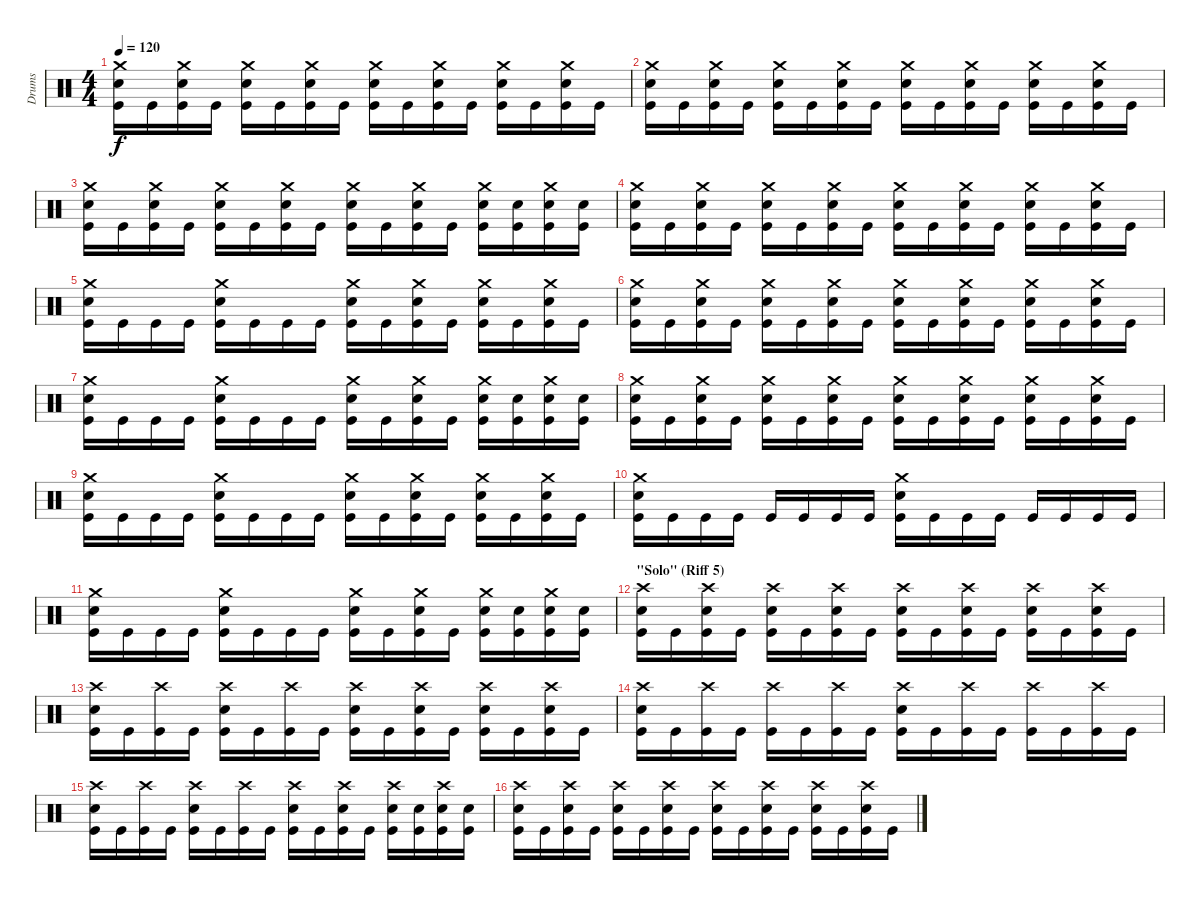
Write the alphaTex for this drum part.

\track ("Drums" "Drums") {instrument percussion}
\staff {score}
\articulation defaults
\ts (4 4)
\tempo 120
\clef neutral
\ks c
("Crash medium (hit)" "Snare (hit) 2" "Kick (hit)").16{dy f} "Kick (hit)".16 ("Crash medium (hit)" "Snare (hit) 2" "Kick (hit)").16 "Kick (hit)".16 ("Crash medium (hit)" "Snare (hit) 2" "Kick (hit)").16 "Kick (hit)".16 ("Crash medium (hit)" "Snare (hit) 2" "Kick (hit)").16 "Kick (hit)".16 ("Crash medium (hit)" "Snare (hit) 2" "Kick (hit)").16 "Kick (hit)".16 ("Crash medium (hit)" "Snare (hit) 2" "Kick (hit)").16 "Kick (hit)".16 ("Crash medium (hit)" "Snare (hit) 2" "Kick (hit)").16 "Kick (hit)".16 ("Crash medium (hit)" "Snare (hit) 2" "Kick (hit)").16 "Kick (hit)".16 |
("Crash medium (hit)" "Snare (hit) 2" "Kick (hit)").16 "Kick (hit)".16 ("Crash medium (hit)" "Snare (hit) 2" "Kick (hit)").16 "Kick (hit)".16 ("Crash medium (hit)" "Snare (hit) 2" "Kick (hit)").16 "Kick (hit)".16 ("Crash medium (hit)" "Snare (hit) 2" "Kick (hit)").16 "Kick (hit)".16 ("Crash medium (hit)" "Snare (hit) 2" "Kick (hit)").16 "Kick (hit)".16 ("Crash medium (hit)" "Snare (hit) 2" "Kick (hit)").16 "Kick (hit)".16 ("Crash medium (hit)" "Snare (hit) 2" "Kick (hit)").16 "Kick (hit)".16 ("Crash medium (hit)" "Snare (hit) 2" "Kick (hit)").16 "Kick (hit)".16 |
("Crash medium (hit)" "Snare (hit) 2" "Kick (hit)").16 "Kick (hit)".16 ("Crash medium (hit)" "Snare (hit) 2" "Kick (hit)").16 "Kick (hit)".16 ("Crash medium (hit)" "Snare (hit) 2" "Kick (hit)").16 "Kick (hit)".16 ("Crash medium (hit)" "Snare (hit) 2" "Kick (hit)").16 "Kick (hit)".16 ("Crash medium (hit)" "Snare (hit) 2" "Kick (hit)").16 "Kick (hit)".16 ("Crash medium (hit)" "Snare (hit) 2" "Kick (hit)").16 "Kick (hit)".16 ("Crash medium (hit)" "Snare (hit) 2" "Kick (hit)").16 ("Snare (hit) 2" "Kick (hit)").16 ("Crash medium (hit)" "Snare (hit) 2" "Kick (hit)").16 ("Snare (hit) 2" "Kick (hit)").16 |
("Crash medium (hit)" "Snare (hit) 2" "Kick (hit)").16 "Kick (hit)".16 ("Crash medium (hit)" "Snare (hit) 2" "Kick (hit)").16 "Kick (hit)".16 ("Crash medium (hit)" "Snare (hit) 2" "Kick (hit)").16 "Kick (hit)".16 ("Crash medium (hit)" "Snare (hit) 2" "Kick (hit)").16 "Kick (hit)".16 ("Crash medium (hit)" "Snare (hit) 2" "Kick (hit)").16 "Kick (hit)".16 ("Crash medium (hit)" "Snare (hit) 2" "Kick (hit)").16 "Kick (hit)".16 ("Crash medium (hit)" "Snare (hit) 2" "Kick (hit)").16 "Kick (hit)".16 ("Crash medium (hit)" "Snare (hit) 2" "Kick (hit)").16 "Kick (hit)".16 |
("Crash medium (hit)" "Snare (hit) 2" "Kick (hit)").16 "Kick (hit)".16 "Kick (hit)".16 "Kick (hit)".16 ("Crash medium (hit)" "Snare (hit) 2" "Kick (hit)").16 "Kick (hit)".16 "Kick (hit)".16 "Kick (hit)".16 ("Crash medium (hit)" "Snare (hit) 2" "Kick (hit)").16 "Kick (hit)".16 ("Crash medium (hit)" "Snare (hit) 2" "Kick (hit)").16 "Kick (hit)".16 ("Crash medium (hit)" "Snare (hit) 2" "Kick (hit)").16 "Kick (hit)".16 ("Crash medium (hit)" "Snare (hit) 2" "Kick (hit)").16 "Kick (hit)".16 |
("Crash medium (hit)" "Snare (hit) 2" "Kick (hit)").16 "Kick (hit)".16 ("Crash medium (hit)" "Snare (hit) 2" "Kick (hit)").16 "Kick (hit)".16 ("Crash medium (hit)" "Snare (hit) 2" "Kick (hit)").16 "Kick (hit)".16 ("Crash medium (hit)" "Snare (hit) 2" "Kick (hit)").16 "Kick (hit)".16 ("Crash medium (hit)" "Snare (hit) 2" "Kick (hit)").16 "Kick (hit)".16 ("Crash medium (hit)" "Snare (hit) 2" "Kick (hit)").16 "Kick (hit)".16 ("Crash medium (hit)" "Snare (hit) 2" "Kick (hit)").16 "Kick (hit)".16 ("Crash medium (hit)" "Snare (hit) 2" "Kick (hit)").16 "Kick (hit)".16 |
("Crash medium (hit)" "Snare (hit) 2" "Kick (hit)").16 "Kick (hit)".16 "Kick (hit)".16 "Kick (hit)".16 ("Crash medium (hit)" "Snare (hit) 2" "Kick (hit)").16 "Kick (hit)".16 "Kick (hit)".16 "Kick (hit)".16 ("Crash medium (hit)" "Snare (hit) 2" "Kick (hit)").16 "Kick (hit)".16 ("Crash medium (hit)" "Snare (hit) 2" "Kick (hit)").16 "Kick (hit)".16 ("Crash medium (hit)" "Snare (hit) 2" "Kick (hit)").16 ("Snare (hit) 2" "Kick (hit)").16 ("Crash medium (hit)" "Snare (hit) 2" "Kick (hit)").16 ("Snare (hit) 2" "Kick (hit)").16 |
("Crash medium (hit)" "Snare (hit) 2" "Kick (hit)").16 "Kick (hit)".16 ("Crash medium (hit)" "Snare (hit) 2" "Kick (hit)").16 "Kick (hit)".16 ("Crash medium (hit)" "Snare (hit) 2" "Kick (hit)").16 "Kick (hit)".16 ("Crash medium (hit)" "Snare (hit) 2" "Kick (hit)").16 "Kick (hit)".16 ("Crash medium (hit)" "Snare (hit) 2" "Kick (hit)").16 "Kick (hit)".16 ("Crash medium (hit)" "Snare (hit) 2" "Kick (hit)").16 "Kick (hit)".16 ("Crash medium (hit)" "Snare (hit) 2" "Kick (hit)").16 "Kick (hit)".16 ("Crash medium (hit)" "Snare (hit) 2" "Kick (hit)").16 "Kick (hit)".16 |
("Crash medium (hit)" "Snare (hit) 2" "Kick (hit)").16 "Kick (hit)".16 "Kick (hit)".16 "Kick (hit)".16 ("Crash medium (hit)" "Snare (hit) 2" "Kick (hit)").16 "Kick (hit)".16 "Kick (hit)".16 "Kick (hit)".16 ("Crash medium (hit)" "Snare (hit) 2" "Kick (hit)").16 "Kick (hit)".16 ("Crash medium (hit)" "Snare (hit) 2" "Kick (hit)").16 "Kick (hit)".16 ("Crash medium (hit)" "Snare (hit) 2" "Kick (hit)").16 "Kick (hit)".16 ("Crash medium (hit)" "Snare (hit) 2" "Kick (hit)").16 "Kick (hit)".16 |
("Crash medium (hit)" "Snare (hit) 2" "Kick (hit)").16 "Kick (hit)".16 "Kick (hit)".16 "Kick (hit)".16 "Kick (hit)".16 "Kick (hit)".16 "Kick (hit)".16 "Kick (hit)".16 ("Crash medium (hit)" "Snare (hit) 2" "Kick (hit)").16 "Kick (hit)".16 "Kick (hit)".16 "Kick (hit)".16 "Kick (hit)".16 "Kick (hit)".16 "Kick (hit)".16 "Kick (hit)".16 |
("Crash medium (hit)" "Snare (hit) 2" "Kick (hit)").16 "Kick (hit)".16 "Kick (hit)".16 "Kick (hit)".16 ("Crash medium (hit)" "Snare (hit) 2" "Kick (hit)").16 "Kick (hit)".16 "Kick (hit)".16 "Kick (hit)".16 ("Crash medium (hit)" "Snare (hit) 2" "Kick (hit)").16 "Kick (hit)".16 ("Crash medium (hit)" "Snare (hit) 2" "Kick (hit)").16 "Kick (hit)".16 ("Crash medium (hit)" "Snare (hit) 2" "Kick (hit)").16 ("Snare (hit) 2" "Kick (hit)").16 ("Crash medium (hit)" "Snare (hit) 2" "Kick (hit)").16 ("Snare (hit) 2" "Kick (hit)").16 |
\section ("" "\"Solo\" (Riff 5)")
("Crash high (hit)" "Snare (hit) 2" "Kick (hit)").16 "Kick (hit)".16 ("Crash high (hit)" "Snare (hit) 2" "Kick (hit)").16 "Kick (hit)".16 ("Crash high (hit)" "Snare (hit) 2" "Kick (hit)").16 "Kick (hit)".16 ("Crash high (hit)" "Snare (hit) 2" "Kick (hit)").16 "Kick (hit)".16 ("Crash high (hit)" "Snare (hit) 2" "Kick (hit)").16 "Kick (hit)".16 ("Crash high (hit)" "Snare (hit) 2" "Kick (hit)").16 "Kick (hit)".16 ("Crash high (hit)" "Snare (hit) 2" "Kick (hit)").16 "Kick (hit)".16 ("Crash high (hit)" "Snare (hit) 2" "Kick (hit)").16 "Kick (hit)".16 |
("Crash high (hit)" "Snare (hit) 2" "Kick (hit)").16 "Kick (hit)".16 ("Crash high (hit)" "Kick (hit)").16 "Kick (hit)".16 ("Crash high (hit)" "Snare (hit) 2" "Kick (hit)").16 "Kick (hit)".16 ("Crash high (hit)" "Kick (hit)").16 "Kick (hit)".16 ("Crash high (hit)" "Snare (hit) 2" "Kick (hit)").16 "Kick (hit)".16 ("Crash high (hit)" "Snare (hit) 2" "Kick (hit)").16 "Kick (hit)".16 ("Crash high (hit)" "Snare (hit) 2" "Kick (hit)").16 "Kick (hit)".16 ("Crash high (hit)" "Snare (hit) 2" "Kick (hit)").16 "Kick (hit)".16 |
("Crash high (hit)" "Snare (hit) 2" "Kick (hit)").16 "Kick (hit)".16 ("Crash high (hit)" "Kick (hit)").16 "Kick (hit)".16 ("Crash high (hit)" "Kick (hit)").16 "Kick (hit)".16 ("Crash high (hit)" "Kick (hit)").16 "Kick (hit)".16 ("Crash high (hit)" "Snare (hit) 2" "Kick (hit)").16 "Kick (hit)".16 ("Crash high (hit)" "Kick (hit)").16 "Kick (hit)".16 ("Crash high (hit)" "Kick (hit)").16 "Kick (hit)".16 ("Crash high (hit)" "Kick (hit)").16 "Kick (hit)".16 |
("Crash high (hit)" "Snare (hit) 2" "Kick (hit)").16 "Kick (hit)".16 ("Crash high (hit)" "Kick (hit)").16 "Kick (hit)".16 ("Crash high (hit)" "Snare (hit) 2" "Kick (hit)").16 "Kick (hit)".16 ("Crash high (hit)" "Kick (hit)").16 "Kick (hit)".16 ("Crash high (hit)" "Snare (hit) 2" "Kick (hit)").16 "Kick (hit)".16 ("Crash high (hit)" "Snare (hit) 2" "Kick (hit)").16 "Kick (hit)".16 ("Crash high (hit)" "Snare (hit) 2" "Kick (hit)").16 ("Snare (hit) 2" "Kick (hit)").16 ("Crash high (hit)" "Snare (hit) 2" "Kick (hit)").16 ("Snare (hit) 2" "Kick (hit)").16 |
("Crash high (hit)" "Snare (hit) 2" "Kick (hit)").16 "Kick (hit)".16 ("Crash high (hit)" "Snare (hit) 2" "Kick (hit)").16 "Kick (hit)".16 ("Crash high (hit)" "Snare (hit) 2" "Kick (hit)").16 "Kick (hit)".16 ("Crash high (hit)" "Snare (hit) 2" "Kick (hit)").16 "Kick (hit)".16 ("Crash high (hit)" "Snare (hit) 2" "Kick (hit)").16 "Kick (hit)".16 ("Crash high (hit)" "Snare (hit) 2" "Kick (hit)").16 "Kick (hit)".16 ("Crash high (hit)" "Snare (hit) 2" "Kick (hit)").16 "Kick (hit)".16 ("Crash high (hit)" "Snare (hit) 2" "Kick (hit)").16 "Kick (hit)".16
